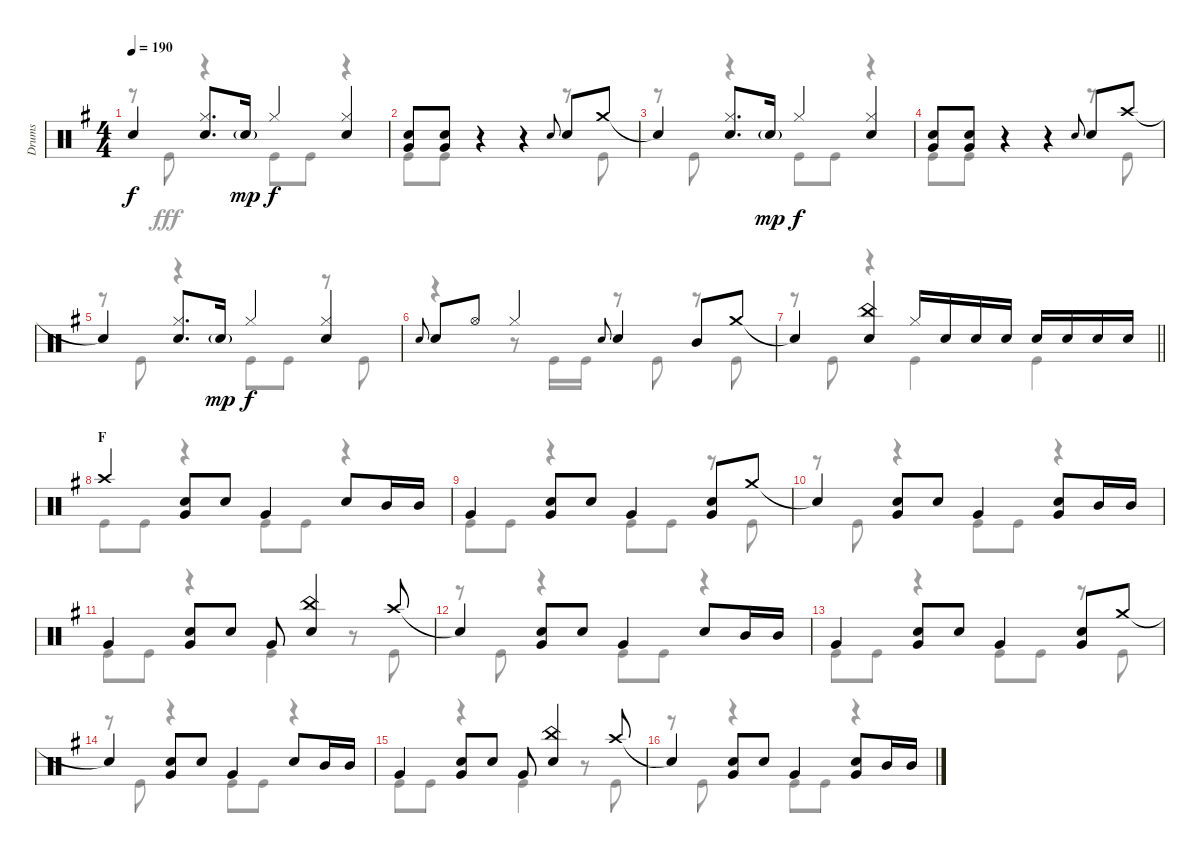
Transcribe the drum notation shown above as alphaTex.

\track ("Drums" "Drums") {instrument percussion}
\staff {score}
\articulation defaults
\voice
\ts (4 4)
\tempo 190
\clef neutral
\ks g "Snare (hit)"{t}.4{dy f}
("Hi-Hat (closed)" "Snare (hit) 2").8{d} "Snare (hit) 2"{g}.16{dy mp} "Hi-Hat (closed)".4{dy f} ("Hi-Hat (closed)" "Snare (hit) 2").4 |
("Snare (hit) 2" "Very Low Tom (hit)").8 ("Snare (hit) 2" "Very Low Tom (hit)").8 r.4 r.4 "Snare (hit) 2".8{gr onbeat} "Snare (hit) 2".8 "Crash medium (hit)".8 |
"Snare (hit)"{t}.4 ("Hi-Hat (closed)" "Snare (hit) 2").8{d} "Snare (hit) 2"{g}.16{dy mp} "Hi-Hat (closed)".4{dy f} ("Hi-Hat (closed)" "Snare (hit) 2").4 |
("Snare (hit) 2" "Very Low Tom (hit)").8 ("Snare (hit) 2" "Very Low Tom (hit)").8 r.4 r.4 "Snare (hit) 2".8{gr onbeat} "Snare (hit) 2".8 "Crash high (hit)".8 |
"Snare (hit)"{t}.4 ("Hi-Hat (closed)" "Snare (hit) 2").8{d} "Snare (hit) 2"{g}.16{dy mp} "Hi-Hat (closed)".4{dy f} ("Hi-Hat (closed)" "Snare (hit) 2").4 |
"Snare (hit) 2".8{gr onbeat} "Snare (hit) 2".8 "Hi-Hat (open)".8 "Hi-Hat (closed)".4 "Snare (hit) 2".8{gr onbeat} "Snare (hit) 2".4 "Mid Tom (hit)".8 "Crash medium (hit)".8 |
\barLineRight lightlight "Snare (hit)"{t}.4
("China (hit)" "Snare (hit) 2").4 "Hi-Hat (closed)".16 "Snare (hit) 2".16 "Snare (hit) 2".16 "Snare (hit) 2".16 "Snare (hit) 2".16 "Snare (hit) 2".16 "Snare (hit) 2".16 "Snare (hit) 2".16 |
\section ("" "F")
"Crash high (hit)".4 ("Snare (hit) 2" "Very Low Tom (hit)").8 "Snare (hit) 2".8 "Very Low Tom (hit)".4 "Snare (hit) 2".8 "Mid Tom (hit)".16 "Mid Tom (hit)".16 |
"Very Low Tom (hit)".4 ("Snare (hit) 2" "Very Low Tom (hit)").8 "Snare (hit) 2".8 "Very Low Tom (hit)".4 ("Snare (hit) 2" "Very Low Tom (hit)").8 "Crash medium (hit)".8 |
"Snare (hit)"{t}.4 ("Snare (hit) 2" "Very Low Tom (hit)").8 "Snare (hit) 2".8 "Very Low Tom (hit)".4 ("Snare (hit) 2" "Very Low Tom (hit)").8 "Mid Tom (hit)".16 "Mid Tom (hit)".16 |
"Very Low Tom (hit)".4 ("Snare (hit) 2" "Very Low Tom (hit)").8 "Snare (hit) 2".8 "Very Low Tom (hit)".8 ("China (hit)" "Snare (hit) 2").4 "Crash high (hit)".8 |
"Snare (hit)"{t}.4 ("Snare (hit) 2" "Very Low Tom (hit)").8 "Snare (hit) 2".8 "Very Low Tom (hit)".4 "Snare (hit) 2".8 "Mid Tom (hit)".16 "Mid Tom (hit)".16 |
"Very Low Tom (hit)".4 ("Snare (hit) 2" "Very Low Tom (hit)").8 "Snare (hit) 2".8 "Very Low Tom (hit)".4 ("Snare (hit) 2" "Very Low Tom (hit)").8 "Crash medium (hit)".8 |
"Snare (hit)"{t}.4 ("Snare (hit) 2" "Very Low Tom (hit)").8 "Snare (hit) 2".8 "Very Low Tom (hit)".4 "Snare (hit) 2".8 "Mid Tom (hit)".16 "Mid Tom (hit)".16 |
"Very Low Tom (hit)".4 ("Snare (hit) 2" "Very Low Tom (hit)").8 "Snare (hit) 2".8 "Very Low Tom (hit)".8 ("China (hit)" "Snare (hit) 2").4 "Crash high (hit)".8 |
"Snare (hit)"{t}.4 ("Snare (hit) 2" "Very Low Tom (hit)").8 "Snare (hit) 2".8 "Very Low Tom (hit)".4 ("Snare (hit) 2" "Very Low Tom (hit)").8 "Mid Tom (hit)".16 "Mid Tom (hit)".16
\voice
\clef neutral
\ottava regular
\simile none
\ks g
r.8{dy fff} "Kick (hit)".8 r.4 "Kick (hit)".8 "Kick (hit)".8 r.4 |
"Kick (hit)".8 "Kick (hit)".8 r.4 r.4 r.8 "Kick (hit)".8 |
r.8 "Kick (hit)".8 r.4 "Kick (hit)".8 "Kick (hit)".8 r.4 |
"Kick (hit)".8 "Kick (hit)".8 r.4 r.4 r.8 "Kick (hit)".8 |
r.8 "Kick (hit)".8 r.4 "Kick (hit)".8 "Kick (hit)".8 r.8 "Kick (hit)".8 |
r.4 r.8 "Kick (hit)".16 "Kick (hit)".16 r.8 "Kick (hit)".8 r.8 "Kick (hit)".8 |
\barLineRight lightlight
r.8 "Kick (hit)".8 r.4 "Kick (hit)".4 "Kick (hit)".4 |
"Kick (hit)".8 "Kick (hit)".8 r.4 "Kick (hit)".8 "Kick (hit)".8 r.4 |
"Kick (hit)".8 "Kick (hit)".8 r.4 "Kick (hit)".8 "Kick (hit)".8 r.8 "Kick (hit)".8 |
r.8 "Kick (hit)".8 r.4 "Kick (hit)".8 "Kick (hit)".8 r.4 |
"Kick (hit)".8 "Kick (hit)".8 r.4 "Kick (hit)".4 r.8 "Kick (hit)".8 |
r.8 "Kick (hit)".8 r.4 "Kick (hit)".8 "Kick (hit)".8 r.4 |
"Kick (hit)".8 "Kick (hit)".8 r.4 "Kick (hit)".8 "Kick (hit)".8 r.8 "Kick (hit)".8 |
r.8 "Kick (hit)".8 r.4 "Kick (hit)".8 "Kick (hit)".8 r.4 |
"Kick (hit)".8 "Kick (hit)".8 r.4 "Kick (hit)".4 r.8 "Kick (hit)".8 |
r.8 "Kick (hit)".8 r.4 "Kick (hit)".8 "Kick (hit)".8 r.4
